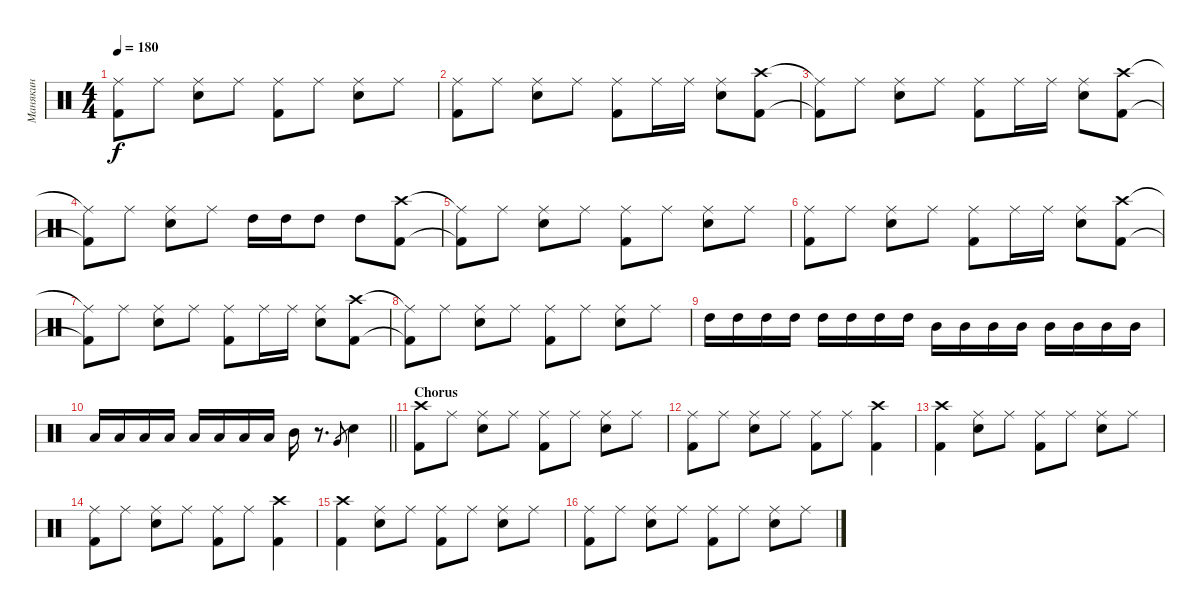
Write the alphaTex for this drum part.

\track ("Манякин" "Манякин") {instrument percussion}
\staff {score}
\articulation defaults
\ts (4 4)
\tempo 180
\clef neutral
\ks c
("Ride (middle)"{t} "Kick (hit) 2"{t}).8{dy f} "Ride (middle)".8 ("Ride (middle)" "Snare (hit) 2").8 "Ride (middle)".8 ("Ride (middle)" "Kick (hit) 2").8 "Ride (middle)".8 ("Ride (middle)" "Snare (hit) 2").8 "Ride (middle)".8 |
("Kick (hit) 2" "Ride (middle)").8 "Ride (middle)".8 ("Snare (hit) 2" "Ride (middle)").8 "Ride (middle)".8 ("Kick (hit) 2" "Ride (middle)").8 "Ride (middle)".16 "Ride (middle)".16 ("Snare (hit) 2" "Ride (middle)").8 ("Kick (hit) 2" "Crash high (hit)").8 |
("Kick (hit) 2"{t} "Ride (middle)"{t}).8 "Ride (middle)".8 ("Snare (hit) 2" "Ride (middle)").8 "Ride (middle)".8 ("Kick (hit) 2" "Ride (middle)").8 "Ride (middle)".16 "Ride (middle)".16 ("Snare (hit) 2" "Ride (middle)").8 ("Kick (hit) 2" "Crash high (hit)").8 |
("Kick (hit) 2"{t} "Ride (middle)"{t}).8 "Ride (middle)".8 ("Snare (hit) 2" "Ride (middle)").8 "Ride (middle)".8 "High Tom (hit)".16 "High Tom (hit)".16 "High Tom (hit)".8 "High Tom (hit)".8 ("Crash high (hit)" "Kick (hit) 2").8 |
("Ride (middle)"{t} "Kick (hit) 2"{t}).8 "Ride (middle)".8 ("Ride (middle)" "Snare (hit) 2").8 "Ride (middle)".8 ("Ride (middle)" "Kick (hit) 2").8 "Ride (middle)".8 ("Ride (middle)" "Snare (hit) 2").8 "Ride (middle)".8 |
("Kick (hit) 2" "Ride (middle)").8 "Ride (middle)".8 ("Snare (hit) 2" "Ride (middle)").8 "Ride (middle)".8 ("Kick (hit) 2" "Ride (middle)").8 "Ride (middle)".16 "Ride (middle)".16 ("Snare (hit) 2" "Ride (middle)").8 ("Kick (hit) 2" "Crash high (hit)").8 |
("Kick (hit) 2"{t} "Ride (middle)"{t}).8 "Ride (middle)".8 ("Snare (hit) 2" "Ride (middle)").8 "Ride (middle)".8 ("Kick (hit) 2" "Ride (middle)").8 "Ride (middle)".16 "Ride (middle)".16 ("Snare (hit) 2" "Ride (middle)").8 ("Kick (hit) 2" "Crash high (hit)").8 |
("Kick (hit) 2"{t} "Ride (middle)"{t}).8 "Ride (middle)".8 ("Snare (hit) 2" "Ride (middle)").8 "Ride (middle)".8 ("Kick (hit) 2" "Ride (middle)").8 "Ride (middle)".8 ("Snare (hit) 2" "Ride (middle)").8 "Ride (middle)".8 |
"High Tom (hit)".16 "High Tom (hit)".16 "High Tom (hit)".16 "High Tom (hit)".16 "High Tom (hit)".16 "High Tom (hit)".16 "High Tom (hit)".16 "High Tom (hit)".16 "Mid Tom (hit)".16 "Mid Tom (hit)".16 "Mid Tom (hit)".16 "Mid Tom (hit)".16 "Mid Tom (hit)".16 "Mid Tom (hit)".16 "Mid Tom (hit)".16 "Mid Tom (hit)".16 |
\barLineRight lightlight "Low Tom (hit)".16 "Low Tom (hit)".16 "Low Tom (hit)".16 "Low Tom (hit)".16 "Low Tom (hit)".16 "Low Tom (hit)".16 "Low Tom (hit)".16 "Low Tom (hit)".16 "Mid Tom (hit)".16
r.8{d} "Very Low Tom (hit)".8{gr} "Snare (hit) 2".4 |
\section ("" "Chorus")
("Kick (hit) 2" "Crash high (hit)").8 "Ride (middle)".8 ("Snare (hit) 2" "Ride (middle)").8 "Ride (middle)".8 ("Kick (hit) 2" "Ride (middle)").8 "Ride (middle)".8 ("Snare (hit) 2" "Ride (middle)").8 "Ride (middle)".8 |
("Kick (hit) 2" "Ride (middle)").8 "Ride (middle)".8 ("Snare (hit) 2" "Ride (middle)").8 "Ride (middle)".8 ("Kick (hit) 2" "Ride (middle)").8 "Ride (middle)".8 ("Kick (hit) 2" "Crash high (hit)").4 |
("Kick (hit) 2" "Crash high (hit)").4 ("Snare (hit) 2" "Ride (middle)").8 "Ride (middle)".8 ("Kick (hit) 2" "Ride (middle)").8 "Ride (middle)".8 ("Snare (hit) 2" "Ride (middle)").8 "Ride (middle)".8 |
("Kick (hit) 2" "Ride (middle)").8 "Ride (middle)".8 ("Snare (hit) 2" "Ride (middle)").8 "Ride (middle)".8 ("Kick (hit) 2" "Ride (middle)").8 "Ride (middle)".8 ("Kick (hit) 2" "Crash high (hit)").4 |
("Kick (hit) 2" "Crash high (hit)").4 ("Snare (hit) 2" "Ride (middle)").8 "Ride (middle)".8 ("Kick (hit) 2" "Ride (middle)").8 "Ride (middle)".8 ("Snare (hit) 2" "Ride (middle)").8 "Ride (middle)".8 |
("Kick (hit) 2" "Ride (middle)").8 "Ride (middle)".8 ("Snare (hit) 2" "Ride (middle)").8 "Ride (middle)".8 ("Kick (hit) 2" "Ride (middle)").8 "Ride (middle)".8 ("Snare (hit) 2" "Ride (middle)").8 "Ride (middle)".8
